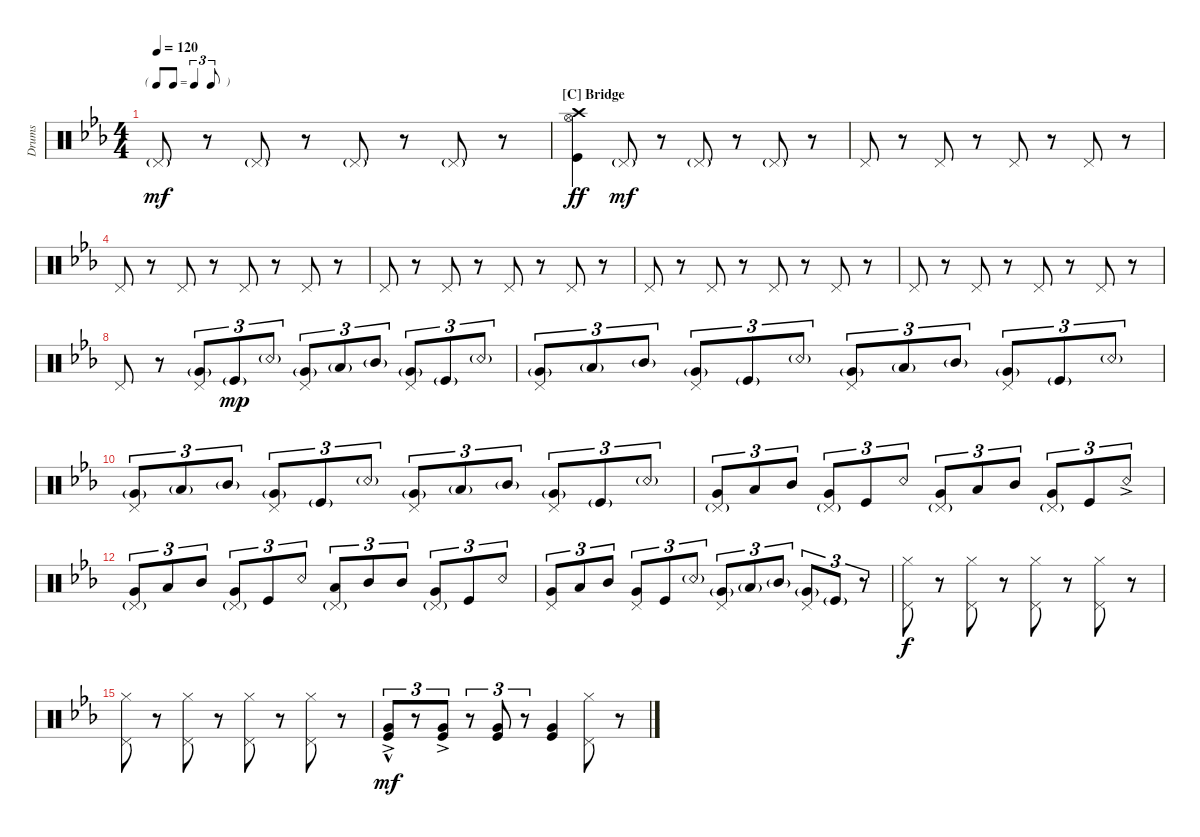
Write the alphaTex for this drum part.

\bracketExtendMode nobrackets
\otherSystemsTrackNameOrientation horizontal
\defaultBarNumberDisplay FirstOfSystem
\track ("Drumkit" "Drums") {instrument percussion}
\staff {score}
\articulation defaults
\ts (4 4)
\tf triplet8th
\tempo 120
\clef neutral
\ks cminor "Pedal Hi-Hat (hit)"{g}.8{dy mf}
r.8 "Pedal Hi-Hat (hit)"{g}.8 r.8 "Pedal Hi-Hat (hit)"{g}.8 r.8 "Pedal Hi-Hat (hit)"{g}.8 r.8 |
\section ("C" "Bridge")
("Kick (hit)" "Hi-Hat (open)" "Crash high (hit)").4{dy ff} "Pedal Hi-Hat (hit)"{g}.8{dy mf} r.8 "Pedal Hi-Hat (hit)"{g}.8 r.8 "Pedal Hi-Hat (hit)"{g}.8 r.8 |
"Pedal Hi-Hat (hit)".8 r.8 "Pedal Hi-Hat (hit)".8 r.8 "Pedal Hi-Hat (hit)".8 r.8 "Pedal Hi-Hat (hit)".8 r.8 |
"Pedal Hi-Hat (hit)".8 r.8 "Pedal Hi-Hat (hit)".8 r.8 "Pedal Hi-Hat (hit)".8 r.8 "Pedal Hi-Hat (hit)".8 r.8 |
"Pedal Hi-Hat (hit)".8 r.8 "Pedal Hi-Hat (hit)".8 r.8 "Pedal Hi-Hat (hit)".8 r.8 "Pedal Hi-Hat (hit)".8 r.8 |
"Pedal Hi-Hat (hit)".8 r.8 "Pedal Hi-Hat (hit)".8 r.8 "Pedal Hi-Hat (hit)".8 r.8 "Pedal Hi-Hat (hit)".8 r.8 |
"Pedal Hi-Hat (hit)".8 r.8 "Pedal Hi-Hat (hit)".8 r.8 "Pedal Hi-Hat (hit)".8 r.8 "Pedal Hi-Hat (hit)".8 r.8 |
"Pedal Hi-Hat (hit)".8 r.8 ("Pedal Hi-Hat (hit)" "Very Low Tom (hit)"{g}).8{tu (3 2)} "Kick (hit)"{g}.8{tu (3 2) dy mp} "Snare (rim shot)"{g}.8{tu (3 2)} ("Pedal Hi-Hat (hit)" "Very Low Tom (hit)"{g}).8{tu (3 2)} "Low Tom (hit)"{g}.8{tu (3 2)} "Mid Tom (hit)"{g}.8{tu (3 2)} ("Pedal Hi-Hat (hit)" "Very Low Tom (hit)"{g}).8{tu (3 2)} "Kick (hit)"{g}.8{tu (3 2)} "Snare (rim shot)"{g}.8{tu (3 2)} |
("Pedal Hi-Hat (hit)" "Very Low Tom (hit)"{g}).8{tu (3 2)} "Low Tom (hit)"{g}.8{tu (3 2)} "Mid Tom (hit)"{g}.8{tu (3 2)} ("Pedal Hi-Hat (hit)" "Very Low Tom (hit)"{g}).8{tu (3 2)} "Kick (hit)"{g}.8{tu (3 2)} "Snare (rim shot)"{g}.8{tu (3 2)} ("Pedal Hi-Hat (hit)" "Very Low Tom (hit)"{g}).8{tu (3 2)} "Low Tom (hit)"{g}.8{tu (3 2)} "Mid Tom (hit)"{g}.8{tu (3 2)} ("Pedal Hi-Hat (hit)" "Very Low Tom (hit)"{g}).8{tu (3 2)} "Kick (hit)"{g}.8{tu (3 2)} "Snare (rim shot)"{g}.8{tu (3 2)} |
("Pedal Hi-Hat (hit)" "Very Low Tom (hit)"{g}).8{tu (3 2)} "Low Tom (hit)"{g}.8{tu (3 2)} "Mid Tom (hit)"{g}.8{tu (3 2)} ("Pedal Hi-Hat (hit)" "Very Low Tom (hit)"{g}).8{tu (3 2)} "Kick (hit)"{g}.8{tu (3 2)} "Snare (rim shot)"{g}.8{tu (3 2)} ("Pedal Hi-Hat (hit)" "Very Low Tom (hit)"{g}).8{tu (3 2)} "Low Tom (hit)"{g}.8{tu (3 2)} "Mid Tom (hit)"{g}.8{tu (3 2)} ("Pedal Hi-Hat (hit)" "Very Low Tom (hit)"{g}).8{tu (3 2)} "Kick (hit)"{g}.8{tu (3 2)} "Snare (rim shot)"{g}.8{tu (3 2)} |
("Pedal Hi-Hat (hit)"{g} "Very Low Tom (hit)").8{tu (3 2)} "Low Tom (hit)".8{tu (3 2)} "Mid Tom (hit)".8{tu (3 2)} ("Pedal Hi-Hat (hit)"{g} "Very Low Tom (hit)").8{tu (3 2)} "Kick (hit)".8{tu (3 2)} "Snare (rim shot)".8{tu (3 2)} ("Pedal Hi-Hat (hit)"{g} "Very Low Tom (hit)").8{tu (3 2)} "Low Tom (hit)".8{tu (3 2)} "Mid Tom (hit)".8{tu (3 2)} ("Pedal Hi-Hat (hit)"{g} "Very Low Tom (hit)").8{tu (3 2)} "Kick (hit)".8{tu (3 2)} "Snare (rim shot)"{ac}.8{tu (3 2)} |
("Pedal Hi-Hat (hit)"{g} "Very Low Tom (hit)").8{tu (3 2)} "Low Tom (hit)".8{tu (3 2)} "Mid Tom (hit)".8{tu (3 2)} ("Pedal Hi-Hat (hit)"{g} "Very Low Tom (hit)").8{tu (3 2)} "Kick (hit)".8{tu (3 2)} "Snare (rim shot)".8{tu (3 2)} ("Pedal Hi-Hat (hit)"{g} "Low Tom (hit)").8{tu (3 2)} "Mid Tom (hit)".8{tu (3 2)} "Mid Tom (hit)".8{tu (3 2)} ("Pedal Hi-Hat (hit)"{g} "Very Low Tom (hit)").8{tu (3 2)} "Kick (hit)".8{tu (3 2)} "Snare (rim shot)".8{tu (3 2)} |
("Pedal Hi-Hat (hit)" "Very Low Tom (hit)").8{tu (3 2)} "Low Tom (hit)".8{tu (3 2)} "Mid Tom (hit)".8{tu (3 2)} ("Pedal Hi-Hat (hit)" "Very Low Tom (hit)").8{tu (3 2)} "Kick (hit)".8{tu (3 2)} "Snare (rim shot)"{g}.8{tu (3 2)} ("Pedal Hi-Hat (hit)" "Very Low Tom (hit)"{g}).8{tu (3 2)} "Low Tom (hit)"{g}.8{tu (3 2)} "Mid Tom (hit)"{g}.8{tu (3 2)} ("Pedal Hi-Hat (hit)" "Very Low Tom (hit)"{g}).8{tu (3 2)} "Kick (hit)"{g}.8{tu (3 2)} r.8{tu (3 2)} |
("Pedal Hi-Hat (hit)" "Hi-Hat (closed)").8{dy f} r.8 ("Pedal Hi-Hat (hit)" "Hi-Hat (closed)").8 r.8 ("Pedal Hi-Hat (hit)" "Hi-Hat (closed)").8 r.8 ("Pedal Hi-Hat (hit)" "Hi-Hat (closed)").8 r.8 |
("Pedal Hi-Hat (hit)" "Hi-Hat (closed)").8 r.8 ("Pedal Hi-Hat (hit)" "Hi-Hat (closed)").8 r.8 ("Pedal Hi-Hat (hit)" "Hi-Hat (closed)").8 r.8 ("Pedal Hi-Hat (hit)" "Hi-Hat (closed)").8 r.8 |
("Kick (hit)"{ac} "Very Low Tom (hit)"{hac}).8{tu (3 2) dy mf} r.8{tu (3 2)} ("Kick (hit)"{ac} "Very Low Tom (hit)").8{tu (3 2)} r.8{tu (3 2)} ("Kick (hit)" "Very Low Tom (hit)").8{tu (3 2)} r.8{tu (3 2)} ("Kick (hit)" "Very Low Tom (hit)").4 ("Pedal Hi-Hat (hit)" "Hi-Hat (closed)").8 r.8
